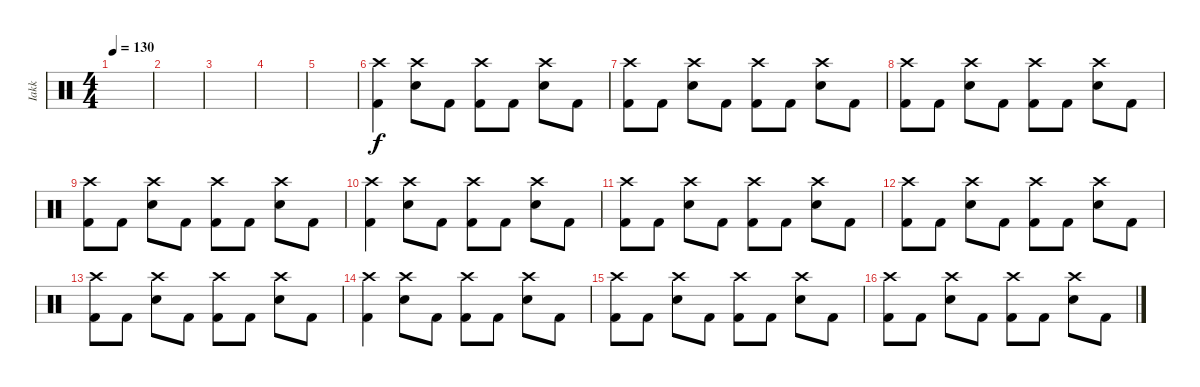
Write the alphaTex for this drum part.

\track ("Iakk" "Iakk") {instrument percussion}
\staff {score}
\articulation defaults
\ts (4 4)
\tempo 130
\clef neutral
\ks c
|
|
|
|
|
("Crash high (hit)" "Kick (hit) 2").4 ("Crash high (hit)" "Electric Snare (hit)").8 "Kick (hit) 2".8 ("Crash high (hit)" "Kick (hit) 2").8 "Kick (hit) 2".8 ("Crash high (hit)" "Electric Snare (hit)").8 "Kick (hit) 2".8 |
("Crash high (hit)" "Kick (hit) 2").8 "Kick (hit) 2".8 ("Crash high (hit)" "Electric Snare (hit)").8 "Kick (hit) 2".8 ("Crash high (hit)" "Kick (hit) 2").8 "Kick (hit) 2".8 ("Crash high (hit)" "Electric Snare (hit)").8 "Kick (hit) 2".8 |
("Crash high (hit)" "Kick (hit) 2").8 "Kick (hit) 2".8 ("Crash high (hit)" "Electric Snare (hit)").8 "Kick (hit) 2".8 ("Crash high (hit)" "Kick (hit) 2").8 "Kick (hit) 2".8 ("Crash high (hit)" "Electric Snare (hit)").8 "Kick (hit) 2".8 |
("Crash high (hit)" "Kick (hit) 2").8 "Kick (hit) 2".8 ("Crash high (hit)" "Electric Snare (hit)").8 "Kick (hit) 2".8 ("Crash high (hit)" "Kick (hit) 2").8 "Kick (hit) 2".8 ("Crash high (hit)" "Electric Snare (hit)").8 "Kick (hit) 2".8 |
("Crash high (hit)" "Kick (hit) 2").4 ("Crash high (hit)" "Electric Snare (hit)").8 "Kick (hit) 2".8 ("Crash high (hit)" "Kick (hit) 2").8 "Kick (hit) 2".8 ("Crash high (hit)" "Electric Snare (hit)").8 "Kick (hit) 2".8 |
("Crash high (hit)" "Kick (hit) 2").8 "Kick (hit) 2".8 ("Crash high (hit)" "Electric Snare (hit)").8 "Kick (hit) 2".8 ("Crash high (hit)" "Kick (hit) 2").8 "Kick (hit) 2".8 ("Crash high (hit)" "Electric Snare (hit)").8 "Kick (hit) 2".8 |
("Crash high (hit)" "Kick (hit) 2").8 "Kick (hit) 2".8 ("Crash high (hit)" "Electric Snare (hit)").8 "Kick (hit) 2".8 ("Crash high (hit)" "Kick (hit) 2").8 "Kick (hit) 2".8 ("Crash high (hit)" "Electric Snare (hit)").8 "Kick (hit) 2".8 |
("Crash high (hit)" "Kick (hit) 2").8 "Kick (hit) 2".8 ("Crash high (hit)" "Electric Snare (hit)").8 "Kick (hit) 2".8 ("Crash high (hit)" "Kick (hit) 2").8 "Kick (hit) 2".8 ("Crash high (hit)" "Electric Snare (hit)").8 "Kick (hit) 2".8 |
("Crash high (hit)" "Kick (hit) 2").4 ("Crash high (hit)" "Electric Snare (hit)").8 "Kick (hit) 2".8 ("Crash high (hit)" "Kick (hit) 2").8 "Kick (hit) 2".8 ("Crash high (hit)" "Electric Snare (hit)").8 "Kick (hit) 2".8 |
("Crash high (hit)" "Kick (hit) 2").8 "Kick (hit) 2".8 ("Crash high (hit)" "Electric Snare (hit)").8 "Kick (hit) 2".8 ("Crash high (hit)" "Kick (hit) 2").8 "Kick (hit) 2".8 ("Crash high (hit)" "Electric Snare (hit)").8 "Kick (hit) 2".8 |
("Crash high (hit)" "Kick (hit) 2").8 "Kick (hit) 2".8 ("Crash high (hit)" "Electric Snare (hit)").8 "Kick (hit) 2".8 ("Crash high (hit)" "Kick (hit) 2").8 "Kick (hit) 2".8 ("Crash high (hit)" "Electric Snare (hit)").8 "Kick (hit) 2".8
